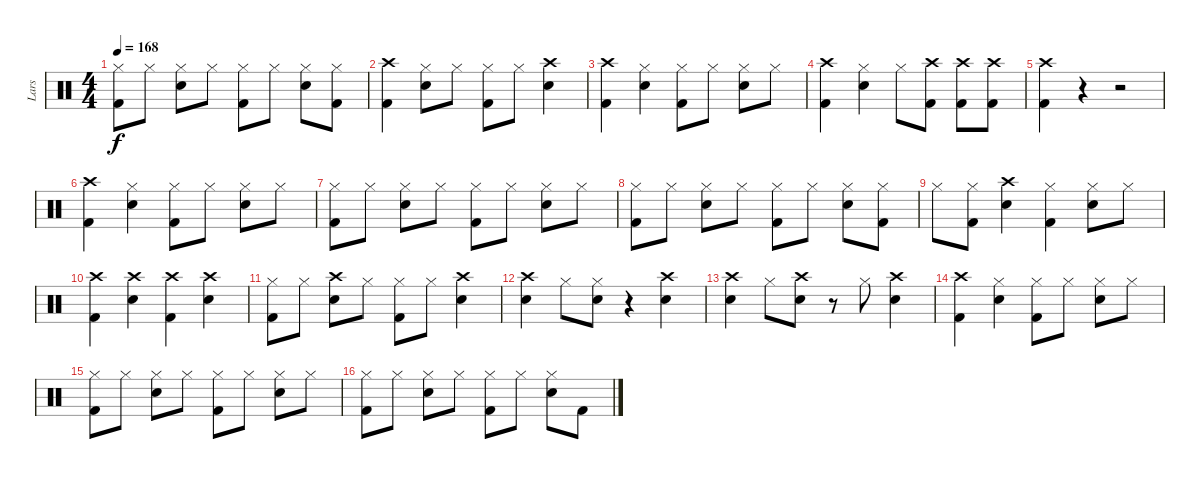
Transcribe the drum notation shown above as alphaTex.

\track ("Lars" "Lars") {instrument percussion}
\staff {score}
\articulation defaults
\ts (4 4)
\tempo 168
\clef neutral
\ks c
("Hi-Hat (closed)" "Kick (hit) 2").8{dy f} "Hi-Hat (closed)".8 ("Hi-Hat (closed)" "Snare (hit) 2").8 "Hi-Hat (closed)".8 ("Hi-Hat (closed)" "Kick (hit) 2").8 "Hi-Hat (closed)".8 ("Hi-Hat (closed)" "Snare (hit) 2").8 ("Hi-Hat (closed)" "Kick (hit) 2").8 |
("Crash high (hit)" "Kick (hit) 2").4 ("Hi-Hat (closed)" "Snare (hit) 2").8 "Hi-Hat (closed)".8 ("Hi-Hat (closed)" "Kick (hit) 2").8 "Hi-Hat (closed)".8 ("Crash high (hit)" "Snare (hit) 2").4 |
("Crash high (hit)" "Kick (hit) 2").4 ("Hi-Hat (closed)" "Snare (hit) 2").4 ("Hi-Hat (closed)" "Kick (hit) 2").8 "Hi-Hat (closed)".8 ("Hi-Hat (closed)" "Snare (hit) 2").8 "Hi-Hat (closed)".8 |
("Crash high (hit)" "Kick (hit) 2").4 ("Hi-Hat (closed)" "Snare (hit) 2").4 "Hi-Hat (closed)".8 ("Crash high (hit)" "Kick (hit) 2").8 ("Crash high (hit)" "Kick (hit) 2").8 ("Crash high (hit)" "Kick (hit) 2").8 |
("Crash high (hit)" "Kick (hit) 2").4 r.4 r.2 |
("Crash high (hit)" "Kick (hit) 2").4 ("Hi-Hat (closed)" "Snare (hit) 2").4 ("Hi-Hat (closed)" "Kick (hit) 2").8 "Hi-Hat (closed)".8 ("Hi-Hat (closed)" "Snare (hit) 2").8 "Hi-Hat (closed)".8 |
("Hi-Hat (closed)" "Kick (hit) 2").8 "Hi-Hat (closed)".8 ("Hi-Hat (closed)" "Snare (hit) 2").8 "Hi-Hat (closed)".8 ("Hi-Hat (closed)" "Kick (hit) 2").8 "Hi-Hat (closed)".8 ("Hi-Hat (closed)" "Snare (hit) 2").8 "Hi-Hat (closed)".8 |
("Hi-Hat (closed)" "Kick (hit) 2").8 "Hi-Hat (closed)".8 ("Hi-Hat (closed)" "Snare (hit) 2").8 "Hi-Hat (closed)".8 ("Hi-Hat (closed)" "Kick (hit) 2").8 "Hi-Hat (closed)".8 ("Hi-Hat (closed)" "Snare (hit) 2").8 ("Hi-Hat (closed)" "Kick (hit) 2").8 |
"Hi-Hat (closed)".8 ("Hi-Hat (closed)" "Kick (hit) 2").8 ("Crash high (hit)" "Snare (hit) 2").4 ("Hi-Hat (closed)" "Kick (hit) 2").4 ("Hi-Hat (closed)" "Snare (hit) 2").8 "Hi-Hat (closed)".8 |
("Crash high (hit)" "Kick (hit) 2").4 ("Crash high (hit)" "Snare (hit) 2").4 ("Crash high (hit)" "Kick (hit) 2").4 ("Crash high (hit)" "Snare (hit) 2").4 |
("Hi-Hat (closed)" "Kick (hit) 2").8 "Hi-Hat (closed)".8 ("Crash high (hit)" "Snare (hit) 2").8 "Hi-Hat (closed)".8 ("Hi-Hat (closed)" "Kick (hit) 2").8 "Hi-Hat (closed)".8 ("Crash high (hit)" "Snare (hit) 2").4 |
("Crash high (hit)" "Snare (hit) 2").4 "Hi-Hat (closed)".8 ("Hi-Hat (closed)" "Snare (hit) 2").8 r.4 ("Crash high (hit)" "Snare (hit) 2").4 |
("Crash high (hit)" "Snare (hit) 2").4 "Hi-Hat (closed)".8 ("Crash high (hit)" "Snare (hit) 2").8 r.8 "Hi-Hat (closed)".8 ("Crash high (hit)" "Snare (hit) 2").4 |
("Crash high (hit)" "Kick (hit) 2").4 ("Hi-Hat (closed)" "Snare (hit) 2").4 ("Hi-Hat (closed)" "Kick (hit) 2").8 "Hi-Hat (closed)".8 ("Hi-Hat (closed)" "Snare (hit) 2").8 "Hi-Hat (closed)".8 |
("Hi-Hat (closed)" "Kick (hit) 2").8 "Hi-Hat (closed)".8 ("Hi-Hat (closed)" "Snare (hit) 2").8 "Hi-Hat (closed)".8 ("Hi-Hat (closed)" "Kick (hit) 2").8 "Hi-Hat (closed)".8 ("Hi-Hat (closed)" "Snare (hit) 2").8 "Hi-Hat (closed)".8 |
("Hi-Hat (closed)" "Kick (hit) 2").8 "Hi-Hat (closed)".8 ("Hi-Hat (closed)" "Snare (hit) 2").8 "Hi-Hat (closed)".8 ("Hi-Hat (closed)" "Kick (hit) 2").8 "Hi-Hat (closed)".8 ("Hi-Hat (closed)" "Snare (hit) 2").8 "Kick (hit) 2".8
